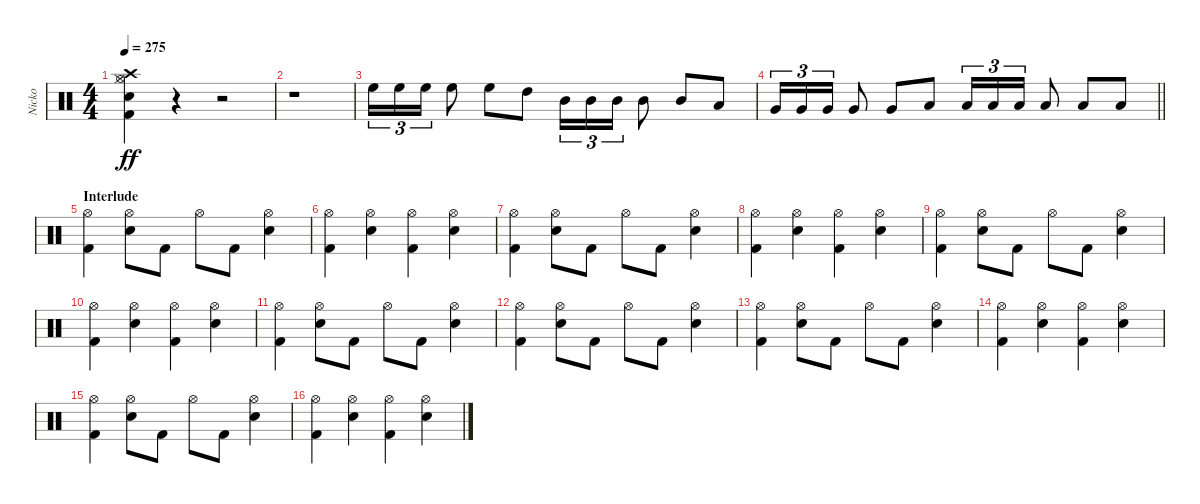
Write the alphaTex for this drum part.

\track ("Nicko" "Nicko") {instrument percussion}
\staff {score}
\articulation defaults
\ts (4 4)
\tempo 275
\clef neutral
\ks c
("Kick (hit) 2" "Snare (hit) 2" "Hi-Hat (closed)" "Hi-Hat (open)" "Crash high (hit)").4{dy ff} r.4 r.2 |
r.1 |
"High Floor Tom (hit)".16{tu (3 2)} "High Floor Tom (hit)".16{tu (3 2)} "High Floor Tom (hit)".16{tu (3 2)} "High Floor Tom (hit)".8 "High Floor Tom (hit)".8 "High Tom (hit)".8 "Mid Tom (hit)".16{tu (3 2)} "Mid Tom (hit)".16{tu (3 2)} "Mid Tom (hit)".16{tu (3 2)} "Mid Tom (hit)".8 "Mid Tom (hit)".8 "Low Tom (hit)".8 |
\barLineRight lightlight "Very Low Tom (hit)".16{tu (3 2)} "Very Low Tom (hit)".16{tu (3 2)} "Very Low Tom (hit)".16{tu (3 2)} "Very Low Tom (hit)".8 "Very Low Tom (hit)".8 "Low Floor Tom (hit)".8 "Low Floor Tom (hit)".16{tu (3 2)} "Low Floor Tom (hit)".16{tu (3 2)} "Low Floor Tom (hit)".16{tu (3 2)} "Low Floor Tom (hit)".8 "Low Floor Tom (hit)".8 "Low Floor Tom (hit)".8
|
\section ("" "Interlude")
("Kick (hit) 2" "Hi-Hat (open)").4 ("Snare (hit) 2" "Hi-Hat (open)").8 "Kick (hit) 2".8 "Hi-Hat (open)".8 "Kick (hit) 2".8 ("Snare (hit) 2" "Hi-Hat (open)").4 |
("Kick (hit) 2" "Hi-Hat (open)").4 ("Snare (hit) 2" "Hi-Hat (open)").4 ("Kick (hit) 2" "Hi-Hat (open)").4 ("Snare (hit) 2" "Hi-Hat (open)").4 |
("Kick (hit) 2" "Hi-Hat (open)").4 ("Snare (hit) 2" "Hi-Hat (open)").8 "Kick (hit) 2".8 "Hi-Hat (open)".8 "Kick (hit) 2".8 ("Snare (hit) 2" "Hi-Hat (open)").4 |
("Kick (hit) 2" "Hi-Hat (open)").4 ("Snare (hit) 2" "Hi-Hat (open)").4 ("Kick (hit) 2" "Hi-Hat (open)").4 ("Snare (hit) 2" "Hi-Hat (open)").4 |
("Kick (hit) 2" "Hi-Hat (open)").4 ("Snare (hit) 2" "Hi-Hat (open)").8 "Kick (hit) 2".8 "Hi-Hat (open)".8 "Kick (hit) 2".8 ("Snare (hit) 2" "Hi-Hat (open)").4 |
("Kick (hit) 2" "Hi-Hat (open)").4 ("Snare (hit) 2" "Hi-Hat (open)").4 ("Kick (hit) 2" "Hi-Hat (open)").4 ("Snare (hit) 2" "Hi-Hat (open)").4 |
("Kick (hit) 2" "Hi-Hat (open)").4 ("Snare (hit) 2" "Hi-Hat (open)").8 "Kick (hit) 2".8 "Hi-Hat (open)".8 "Kick (hit) 2".8 ("Snare (hit) 2" "Hi-Hat (open)").4 |
("Kick (hit) 2" "Hi-Hat (open)").4 ("Snare (hit) 2" "Hi-Hat (open)").8 "Kick (hit) 2".8 "Hi-Hat (open)".8 "Kick (hit) 2".8 ("Snare (hit) 2" "Hi-Hat (open)").4 |
("Kick (hit) 2" "Hi-Hat (open)").4 ("Snare (hit) 2" "Hi-Hat (open)").8 "Kick (hit) 2".8 "Hi-Hat (open)".8 "Kick (hit) 2".8 ("Snare (hit) 2" "Hi-Hat (open)").4 |
("Kick (hit) 2" "Hi-Hat (open)").4 ("Snare (hit) 2" "Hi-Hat (open)").4 ("Kick (hit) 2" "Hi-Hat (open)").4 ("Snare (hit) 2" "Hi-Hat (open)").4 |
("Kick (hit) 2" "Hi-Hat (open)").4 ("Snare (hit) 2" "Hi-Hat (open)").8 "Kick (hit) 2".8 "Hi-Hat (open)".8 "Kick (hit) 2".8 ("Snare (hit) 2" "Hi-Hat (open)").4 |
("Kick (hit) 2" "Hi-Hat (open)").4 ("Snare (hit) 2" "Hi-Hat (open)").4 ("Kick (hit) 2" "Hi-Hat (open)").4 ("Snare (hit) 2" "Hi-Hat (open)").4
